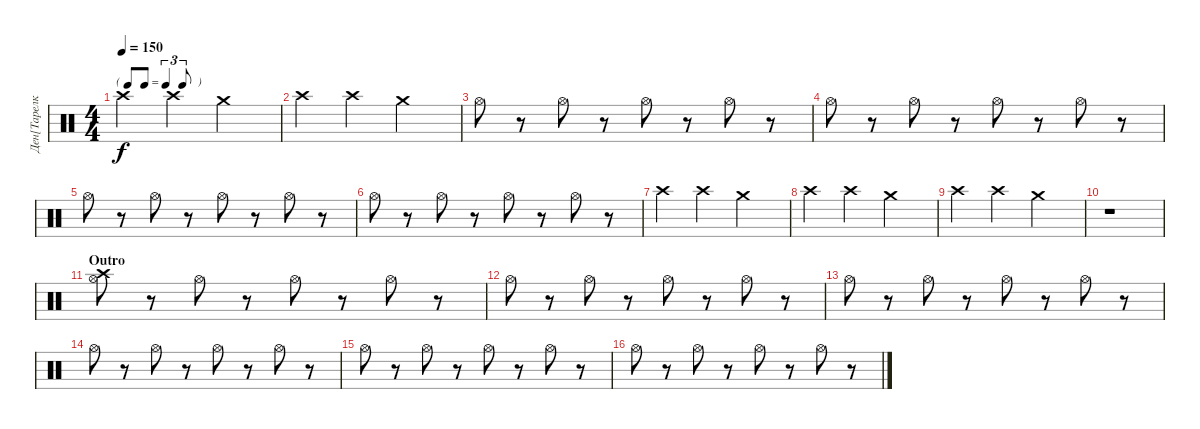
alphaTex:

\track ("Ден[Тарелки]" "Ден[Тарелк") {instrument percussion}
\staff {score}
\articulation defaults
\ts (4 4)
\tf triplet8th
\tempo 150
\clef neutral
\ks c "Crash high (hit)".4{dy f} "Crash high (hit)".4 "Crash medium (hit)".2
|
"Crash high (hit)".4 "Crash high (hit)".4 "Crash medium (hit)".2 |
"Hi-Hat (open)".8 r.8 "Hi-Hat (open)".8 r.8 "Hi-Hat (open)".8 r.8 "Hi-Hat (open)".8 r.8 |
"Hi-Hat (open)".8 r.8 "Hi-Hat (open)".8 r.8 "Hi-Hat (open)".8 r.8 "Hi-Hat (open)".8 r.8 |
"Hi-Hat (open)".8 r.8 "Hi-Hat (open)".8 r.8 "Hi-Hat (open)".8 r.8 "Hi-Hat (open)".8 r.8 |
"Hi-Hat (open)".8 r.8 "Hi-Hat (open)".8 r.8 "Hi-Hat (open)".8 r.8 "Hi-Hat (open)".8 r.8 |
"Crash high (hit)".4 "Crash high (hit)".4 "Crash medium (hit)".2 |
"Crash high (hit)".4 "Crash high (hit)".4 "Crash medium (hit)".2 |
"Crash high (hit)".4 "Crash high (hit)".4 "Crash medium (hit)".2 |
r.1 |
\section ("" "Outro")
("Hi-Hat (open)" "Crash high (hit)").8 r.8 "Hi-Hat (open)".8 r.8 "Hi-Hat (open)".8 r.8 "Hi-Hat (open)".8 r.8 |
"Hi-Hat (open)".8 r.8 "Hi-Hat (open)".8 r.8 "Hi-Hat (open)".8 r.8 "Hi-Hat (open)".8 r.8 |
"Hi-Hat (open)".8 r.8 "Hi-Hat (open)".8 r.8 "Hi-Hat (open)".8 r.8 "Hi-Hat (open)".8 r.8 |
"Hi-Hat (open)".8 r.8 "Hi-Hat (open)".8 r.8 "Hi-Hat (open)".8 r.8 "Hi-Hat (open)".8 r.8 |
"Hi-Hat (open)".8 r.8 "Hi-Hat (open)".8 r.8 "Hi-Hat (open)".8 r.8 "Hi-Hat (open)".8 r.8 |
"Hi-Hat (open)".8 r.8 "Hi-Hat (open)".8 r.8 "Hi-Hat (open)".8 r.8 "Hi-Hat (open)".8 r.8
